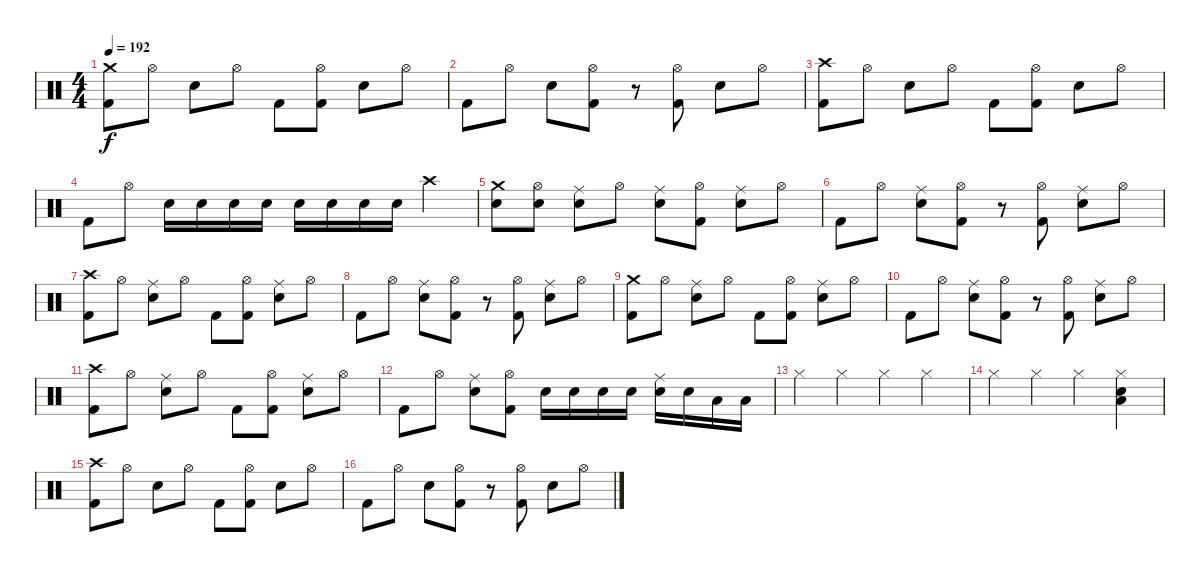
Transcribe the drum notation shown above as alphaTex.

\track "" {instrument percussion}
\staff {score}
\articulation defaults
\ts (4 4)
\tempo 192
\clef neutral
\ks c
("Crash medium (hit)" "Kick (hit) 2").8{dy f} "Hi-Hat (open)".8 "Snare (hit) 2".8 "Hi-Hat (open)".8 "Kick (hit) 2".8 ("Hi-Hat (open)" "Kick (hit) 2").8 "Snare (hit) 2".8 "Hi-Hat (open)".8 |
"Kick (hit) 2".8 "Hi-Hat (open)".8 "Snare (hit) 2".8 ("Hi-Hat (open)" "Kick (hit) 2").8 r.8 ("Hi-Hat (open)" "Kick (hit) 2").8 "Snare (hit) 2".8 "Hi-Hat (open)".8 |
("Crash high (hit)" "Kick (hit) 2").8 "Hi-Hat (open)".8 "Snare (hit) 2".8 "Hi-Hat (open)".8 "Kick (hit) 2".8 ("Hi-Hat (open)" "Kick (hit) 2").8 "Snare (hit) 2".8 "Hi-Hat (open)".8 |
"Kick (hit) 2".8 "Hi-Hat (open)".8 "Snare (hit) 2".16 "Snare (hit) 2".16 "Snare (hit) 2".16 "Snare (hit) 2".16 "Snare (hit) 2".16 "Snare (hit) 2".16 "Snare (hit) 2".16 "Snare (hit) 2".16 "Crash high (hit)".4 |
("Crash medium (hit)" "Snare (hit) 2").8 ("Hi-Hat (open)" "Snare (hit) 2").8 ("Ride (middle)" "Snare (hit) 2").8 "Hi-Hat (open)".8 ("Ride (middle)" "Snare (hit) 2").8 ("Hi-Hat (open)" "Kick (hit) 2").8 ("Ride (middle)" "Snare (hit) 2").8 "Hi-Hat (open)".8 |
"Kick (hit) 2".8 "Hi-Hat (open)".8 ("Ride (middle)" "Snare (hit) 2").8 ("Hi-Hat (open)" "Kick (hit) 2").8 r.8 ("Hi-Hat (open)" "Kick (hit) 2").8 ("Ride (middle)" "Snare (hit) 2").8 "Hi-Hat (open)".8 |
("Crash high (hit)" "Kick (hit) 2").8 "Hi-Hat (open)".8 ("Ride (middle)" "Snare (hit) 2").8 "Hi-Hat (open)".8 "Kick (hit) 2".8 ("Hi-Hat (open)" "Kick (hit) 2").8 ("Ride (middle)" "Snare (hit) 2").8 "Hi-Hat (open)".8 |
"Kick (hit) 2".8 "Hi-Hat (open)".8 ("Ride (middle)" "Snare (hit) 2").8 ("Hi-Hat (open)" "Kick (hit) 2").8 r.8 ("Hi-Hat (open)" "Kick (hit) 2").8 ("Ride (middle)" "Snare (hit) 2").8 "Hi-Hat (open)".8 |
("Crash medium (hit)" "Kick (hit) 2").8 "Hi-Hat (open)".8 ("Ride (middle)" "Snare (hit) 2").8 "Hi-Hat (open)".8 "Kick (hit) 2".8 ("Hi-Hat (open)" "Kick (hit) 2").8 ("Ride (middle)" "Snare (hit) 2").8 "Hi-Hat (open)".8 |
"Kick (hit) 2".8 "Hi-Hat (open)".8 ("Ride (middle)" "Snare (hit) 2").8 ("Hi-Hat (open)" "Kick (hit) 2").8 r.8 ("Hi-Hat (open)" "Kick (hit) 2").8 ("Ride (middle)" "Snare (hit) 2").8 "Hi-Hat (open)".8 |
("Crash high (hit)" "Kick (hit) 2").8 "Hi-Hat (open)".8 ("Ride (middle)" "Snare (hit) 2").8 "Hi-Hat (open)".8 "Kick (hit) 2".8 ("Hi-Hat (open)" "Kick (hit) 2").8 ("Ride (middle)" "Snare (hit) 2").8 "Hi-Hat (open)".8 |
"Kick (hit) 2".8 "Hi-Hat (open)".8 ("Ride (middle)" "Snare (hit) 2").8 ("Hi-Hat (open)" "Kick (hit) 2").8 "Electric Snare (hit)".16 "Electric Snare (hit)".16 "Electric Snare (hit)".16 "Electric Snare (hit)".16 ("Ride (middle)" "Snare (hit) 2").16 "Snare (hit) 2".16 "Low Floor Tom (hit)".16 "Low Floor Tom (hit)".16 |
"Hi-Hat (closed)".4 "Hi-Hat (closed)".4 "Hi-Hat (closed)".4 "Hi-Hat (closed)".4 |
"Hi-Hat (closed)".4 "Hi-Hat (closed)".4 "Hi-Hat (closed)".4 ("Hi-Hat (closed)" "Low Floor Tom (hit)" "Snare (hit) 2").4 |
("Crash high (hit)" "Kick (hit) 2").8 "Hi-Hat (open)".8 "Snare (hit) 2".8 "Hi-Hat (open)".8 "Kick (hit) 2".8 ("Hi-Hat (open)" "Kick (hit) 2").8 "Snare (hit) 2".8 "Hi-Hat (open)".8 |
"Kick (hit) 2".8 "Hi-Hat (open)".8 "Snare (hit) 2".8 ("Hi-Hat (open)" "Kick (hit) 2").8 r.8 ("Hi-Hat (open)" "Kick (hit) 2").8 "Snare (hit) 2".8 "Hi-Hat (open)".8
